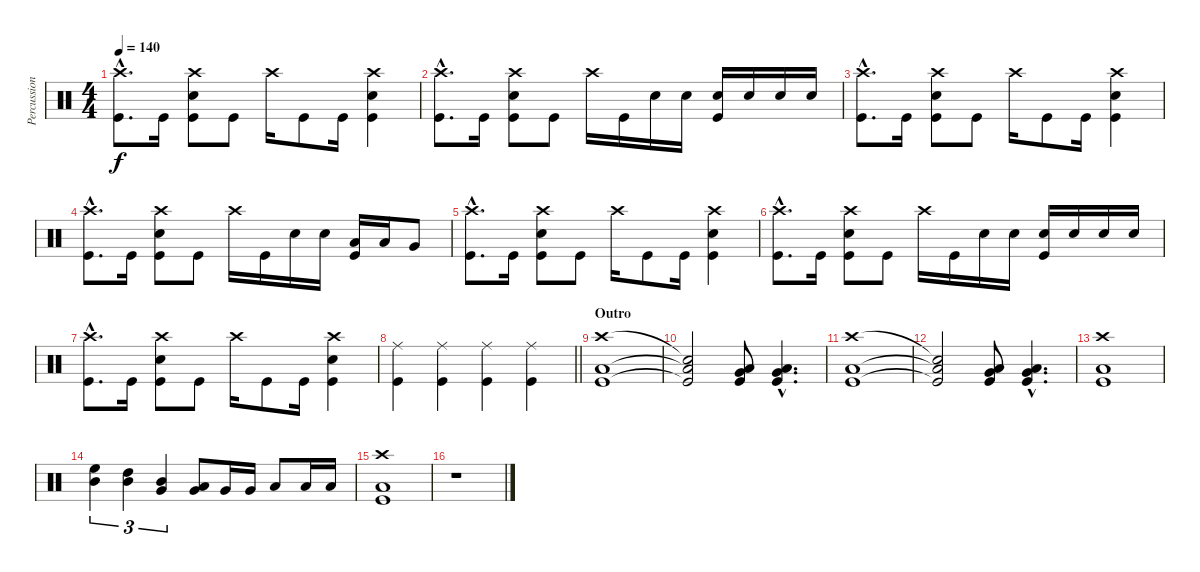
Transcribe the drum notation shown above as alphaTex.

\track ("Percussion" "Percussion") {instrument percussion}
\staff {score}
\articulation defaults
\ts (4 4)
\tempo 140
\clef neutral
\ks c
("Crash high (hit)"{hac} "Kick (hit)"{hac}).8{d dy f} "Kick (hit)".16 ("Crash high (hit)" "Snare (hit) 2" "Kick (hit)").8 "Kick (hit)".8 "Crash high (hit)".16 "Kick (hit)".8 "Kick (hit)".16 ("Crash high (hit)" "Snare (hit) 2" "Kick (hit)").4 |
("Crash high (hit)"{hac} "Kick (hit)"{hac}).8{d} "Kick (hit)".16 ("Crash high (hit)" "Snare (hit) 2" "Kick (hit)").8 "Kick (hit)".8 "Crash high (hit)".16 "Kick (hit)".16 "Snare (hit) 2".16 "Snare (hit) 2".16 ("Snare (hit) 2" "Kick (hit)").16 "Snare (hit) 2".16 "Snare (hit) 2".16 "Snare (hit) 2".16 |
("Crash high (hit)"{hac} "Kick (hit)"{hac}).8{d} "Kick (hit)".16 ("Crash high (hit)" "Snare (hit) 2" "Kick (hit)").8 "Kick (hit)".8 "Crash high (hit)".16 "Kick (hit)".8 "Kick (hit)".16 ("Crash high (hit)" "Snare (hit) 2" "Kick (hit)").4 |
("Crash high (hit)"{hac} "Kick (hit)"{hac}).8{d} "Kick (hit)".16 ("Crash high (hit)" "Snare (hit) 2" "Kick (hit)").8 "Kick (hit)".8 "Crash high (hit)".16 "Kick (hit)".16 "Snare (hit) 2".16 "Snare (hit) 2".16 ("Low Tom (hit)" "Kick (hit)").16 "Low Tom (hit)".16 "Very Low Tom (hit)".8 |
("Crash high (hit)"{hac} "Kick (hit)"{hac}).8{d} "Kick (hit)".16 ("Crash high (hit)" "Snare (hit) 2" "Kick (hit)").8 "Kick (hit)".8 "Crash high (hit)".16 "Kick (hit)".8 "Kick (hit)".16 ("Crash high (hit)" "Snare (hit) 2" "Kick (hit)").4 |
("Crash high (hit)"{hac} "Kick (hit)"{hac}).8{d} "Kick (hit)".16 ("Crash high (hit)" "Snare (hit) 2" "Kick (hit)").8 "Kick (hit)".8 "Crash high (hit)".16 "Kick (hit)".16 "Snare (hit) 2".16 "Snare (hit) 2".16 ("Snare (hit) 2" "Kick (hit)").16 "Snare (hit) 2".16 "Snare (hit) 2".16 "Snare (hit) 2".16 |
("Crash high (hit)"{hac} "Kick (hit)"{hac}).8{d} "Kick (hit)".16 ("Crash high (hit)" "Snare (hit) 2" "Kick (hit)").8 "Kick (hit)".8 "Crash high (hit)".16 "Kick (hit)".8 "Kick (hit)".16 ("Crash high (hit)" "Snare (hit) 2" "Kick (hit)").4 |
\barLineRight lightlight
("Ride (middle)" "Kick (hit)").4 ("Ride (middle)" "Kick (hit)").4 ("Ride (middle)" "Kick (hit)").4 ("Ride (middle)" "Kick (hit)").4 |
\section ("" "Outro")
("Crash high (hit)" "Low Floor Tom (hit)" "Kick (hit)").1 |
("Snare (hit)"{t} "Low Floor Tom (hit)"{t} "Kick (hit)"{t}).2 ("Low Floor Tom (hit)" "Very Low Tom (hit)" "Kick (hit)").8 ("Low Floor Tom (hit)"{hac} "Very Low Tom (hit)"{hac} "Kick (hit)"{hac}).4{d} |
("Crash high (hit)" "Low Floor Tom (hit)" "Kick (hit)").1 |
("Snare (hit)"{t} "Low Floor Tom (hit)"{t} "Kick (hit)"{t}).2 ("Low Floor Tom (hit)" "Very Low Tom (hit)" "Kick (hit)").8 ("Low Floor Tom (hit)"{hac} "Very Low Tom (hit)"{hac} "Kick (hit)"{hac}).4{d} |
("Crash high (hit)" "Low Floor Tom (hit)" "Kick (hit)").1 |
("High Floor Tom (hit)" "Mid Tom (hit)").4{tu (3 2)} ("High Tom (hit)" "Mid Tom (hit)").4{tu (3 2)} ("Mid Tom (hit)" "Very Low Tom (hit)").4{tu (3 2)} ("Low Tom (hit)" "Very Low Tom (hit)").8 "Very Low Tom (hit)".16 "Very Low Tom (hit)".16 "Low Floor Tom (hit)".8 "Low Floor Tom (hit)".16 "Low Floor Tom (hit)".16 |
("Crash high (hit)" "Low Floor Tom (hit)" "Kick (hit)").1 |
r.1
